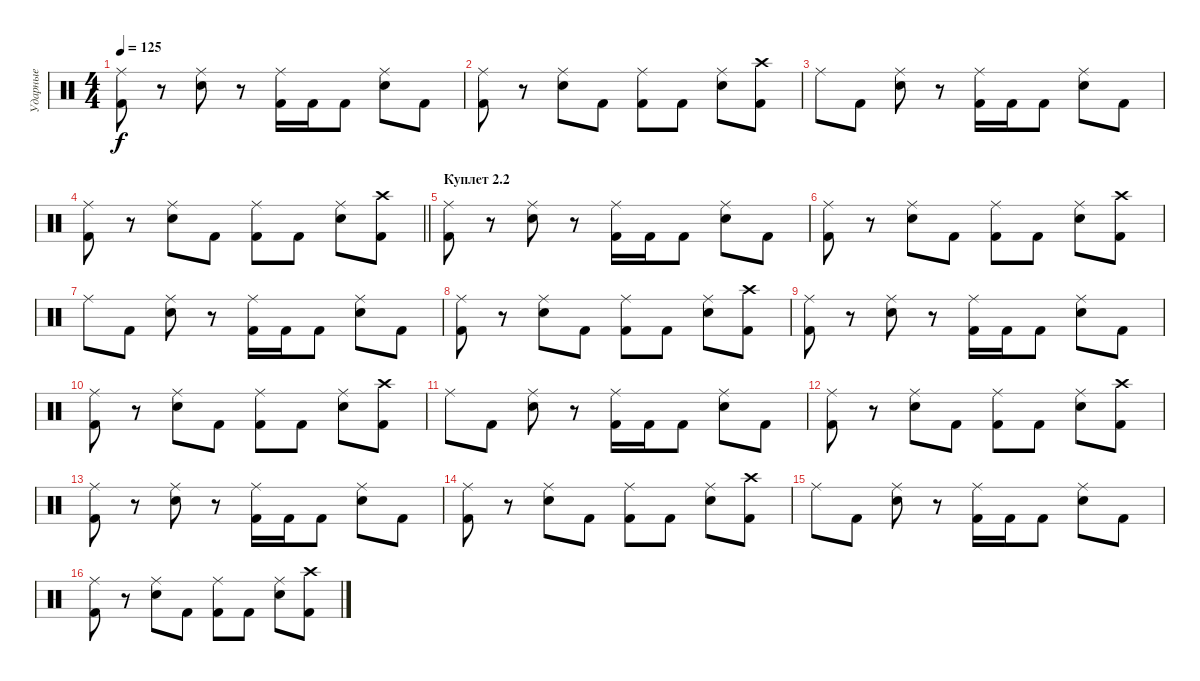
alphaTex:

\track ("Ударные" "Ударные") {instrument percussion}
\staff {score}
\articulation defaults
\ts (4 4)
\tempo 125
\clef neutral
\ks c
("Ride (middle)" "Kick (hit) 2").8{dy f} r.8 ("Ride (middle)" "Snare (hit) 2").8 r.8 ("Ride (middle)" "Kick (hit) 2").16 "Kick (hit) 2".16 "Kick (hit) 2".8 ("Ride (middle)" "Snare (hit) 2").8 "Kick (hit) 2".8 |
("Ride (middle)" "Kick (hit) 2").8 r.8 ("Ride (middle)" "Snare (hit) 2").8 "Kick (hit) 2".8 ("Ride (middle)" "Kick (hit) 2").8 "Kick (hit) 2".8 ("Ride (middle)" "Snare (hit) 2").8 ("Crash high (hit)" "Kick (hit) 2").8 |
"Ride (middle)".8 "Kick (hit) 2".8 ("Ride (middle)" "Snare (hit) 2").8 r.8 ("Ride (middle)" "Kick (hit) 2").16 "Kick (hit) 2".16 "Kick (hit) 2".8 ("Ride (middle)" "Snare (hit) 2").8 "Kick (hit) 2".8 |
\barLineRight lightlight
("Ride (middle)" "Kick (hit) 2").8 r.8 ("Ride (middle)" "Snare (hit) 2").8 "Kick (hit) 2".8 ("Ride (middle)" "Kick (hit) 2").8 "Kick (hit) 2".8 ("Ride (middle)" "Snare (hit) 2").8 ("Crash high (hit)" "Kick (hit) 2").8 |
\section ("" "Куплет 2.2")
("Ride (middle)" "Kick (hit) 2").8 r.8 ("Ride (middle)" "Snare (hit) 2").8 r.8 ("Ride (middle)" "Kick (hit) 2").16 "Kick (hit) 2".16 "Kick (hit) 2".8 ("Ride (middle)" "Snare (hit) 2").8 "Kick (hit) 2".8 |
("Ride (middle)" "Kick (hit) 2").8 r.8 ("Ride (middle)" "Snare (hit) 2").8 "Kick (hit) 2".8 ("Ride (middle)" "Kick (hit) 2").8 "Kick (hit) 2".8 ("Ride (middle)" "Snare (hit) 2").8 ("Crash high (hit)" "Kick (hit) 2").8 |
"Ride (middle)".8 "Kick (hit) 2".8 ("Ride (middle)" "Snare (hit) 2").8 r.8 ("Ride (middle)" "Kick (hit) 2").16 "Kick (hit) 2".16 "Kick (hit) 2".8 ("Ride (middle)" "Snare (hit) 2").8 "Kick (hit) 2".8 |
("Ride (middle)" "Kick (hit) 2").8 r.8 ("Ride (middle)" "Snare (hit) 2").8 "Kick (hit) 2".8 ("Ride (middle)" "Kick (hit) 2").8 "Kick (hit) 2".8 ("Ride (middle)" "Snare (hit) 2").8 ("Crash high (hit)" "Kick (hit) 2").8 |
("Ride (middle)" "Kick (hit) 2").8 r.8 ("Ride (middle)" "Snare (hit) 2").8 r.8 ("Ride (middle)" "Kick (hit) 2").16 "Kick (hit) 2".16 "Kick (hit) 2".8 ("Ride (middle)" "Snare (hit) 2").8 "Kick (hit) 2".8 |
("Ride (middle)" "Kick (hit) 2").8 r.8 ("Ride (middle)" "Snare (hit) 2").8 "Kick (hit) 2".8 ("Ride (middle)" "Kick (hit) 2").8 "Kick (hit) 2".8 ("Ride (middle)" "Snare (hit) 2").8 ("Crash high (hit)" "Kick (hit) 2").8 |
"Ride (middle)".8 "Kick (hit) 2".8 ("Ride (middle)" "Snare (hit) 2").8 r.8 ("Ride (middle)" "Kick (hit) 2").16 "Kick (hit) 2".16 "Kick (hit) 2".8 ("Ride (middle)" "Snare (hit) 2").8 "Kick (hit) 2".8 |
("Ride (middle)" "Kick (hit) 2").8 r.8 ("Ride (middle)" "Snare (hit) 2").8 "Kick (hit) 2".8 ("Ride (middle)" "Kick (hit) 2").8 "Kick (hit) 2".8 ("Ride (middle)" "Snare (hit) 2").8 ("Crash high (hit)" "Kick (hit) 2").8 |
("Ride (middle)" "Kick (hit) 2").8 r.8 ("Ride (middle)" "Snare (hit) 2").8 r.8 ("Ride (middle)" "Kick (hit) 2").16 "Kick (hit) 2".16 "Kick (hit) 2".8 ("Ride (middle)" "Snare (hit) 2").8 "Kick (hit) 2".8 |
("Ride (middle)" "Kick (hit) 2").8 r.8 ("Ride (middle)" "Snare (hit) 2").8 "Kick (hit) 2".8 ("Ride (middle)" "Kick (hit) 2").8 "Kick (hit) 2".8 ("Ride (middle)" "Snare (hit) 2").8 ("Crash high (hit)" "Kick (hit) 2").8 |
"Ride (middle)".8 "Kick (hit) 2".8 ("Ride (middle)" "Snare (hit) 2").8 r.8 ("Ride (middle)" "Kick (hit) 2").16 "Kick (hit) 2".16 "Kick (hit) 2".8 ("Ride (middle)" "Snare (hit) 2").8 "Kick (hit) 2".8 |
("Ride (middle)" "Kick (hit) 2").8 r.8 ("Ride (middle)" "Snare (hit) 2").8 "Kick (hit) 2".8 ("Ride (middle)" "Kick (hit) 2").8 "Kick (hit) 2".8 ("Ride (middle)" "Snare (hit) 2").8 ("Crash high (hit)" "Kick (hit) 2").8
